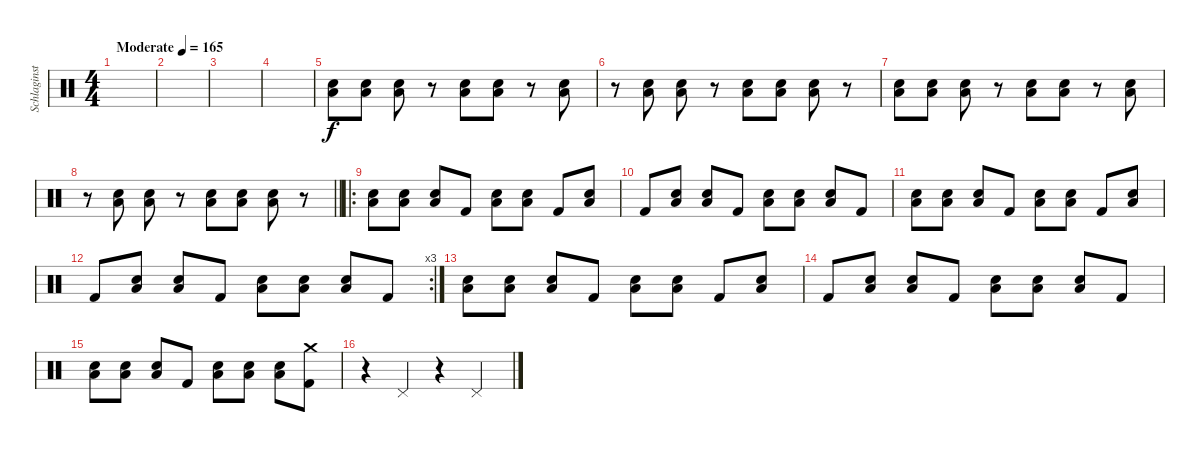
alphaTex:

\track ("Schlaginstrumente - Auswahl" "Schlaginst") {instrument percussion}
\staff {score}
\articulation defaults
\ts (4 4)
\tempo (165 "Moderate")
\clef neutral
\ks c
|
|
|
|
("Low Floor Tom (hit)" "Snare (hit) 2").8 ("Low Floor Tom (hit)" "Snare (hit) 2").8 ("Low Floor Tom (hit)" "Snare (hit) 2").8 r.8 ("Low Floor Tom (hit)" "Snare (hit) 2").8 ("Low Floor Tom (hit)" "Snare (hit) 2").8 r.8 ("Low Floor Tom (hit)" "Snare (hit) 2").8 |
r.8 ("Low Floor Tom (hit)" "Snare (hit) 2").8 ("Low Floor Tom (hit)" "Snare (hit) 2").8 r.8 ("Low Floor Tom (hit)" "Snare (hit) 2").8 ("Low Floor Tom (hit)" "Snare (hit) 2").8 ("Low Floor Tom (hit)" "Snare (hit) 2").8 r.8 |
("Low Floor Tom (hit)" "Snare (hit) 2").8 ("Low Floor Tom (hit)" "Snare (hit) 2").8 ("Low Floor Tom (hit)" "Snare (hit) 2").8 r.8 ("Low Floor Tom (hit)" "Snare (hit) 2").8 ("Low Floor Tom (hit)" "Snare (hit) 2").8 r.8 ("Low Floor Tom (hit)" "Snare (hit) 2").8 |
\barLineRight lightlight
r.8 ("Low Floor Tom (hit)" "Snare (hit) 2").8 ("Low Floor Tom (hit)" "Snare (hit) 2").8 r.8 ("Low Floor Tom (hit)" "Snare (hit) 2").8 ("Low Floor Tom (hit)" "Snare (hit) 2").8 ("Low Floor Tom (hit)" "Snare (hit) 2").8 r.8 |
\ro
("Low Floor Tom (hit)" "Snare (hit) 2").8 ("Low Floor Tom (hit)" "Snare (hit) 2").8 ("Low Floor Tom (hit)" "Snare (hit) 2").8 "Kick (hit) 2".8 ("Low Floor Tom (hit)" "Snare (hit) 2").8 ("Low Floor Tom (hit)" "Snare (hit) 2").8 "Kick (hit) 2".8 ("Low Floor Tom (hit)" "Snare (hit) 2").8 |
"Kick (hit) 2".8 ("Low Floor Tom (hit)" "Snare (hit) 2").8 ("Low Floor Tom (hit)" "Snare (hit) 2").8 "Kick (hit) 2".8 ("Low Floor Tom (hit)" "Snare (hit) 2").8 ("Low Floor Tom (hit)" "Snare (hit) 2").8 ("Low Floor Tom (hit)" "Snare (hit) 2").8 "Kick (hit) 2".8 |
("Low Floor Tom (hit)" "Snare (hit) 2").8 ("Low Floor Tom (hit)" "Snare (hit) 2").8 ("Low Floor Tom (hit)" "Snare (hit) 2").8 "Kick (hit) 2".8 ("Low Floor Tom (hit)" "Snare (hit) 2").8 ("Low Floor Tom (hit)" "Snare (hit) 2").8 "Kick (hit) 2".8 ("Low Floor Tom (hit)" "Snare (hit) 2").8 |
\rc 3 "Kick (hit) 2".8
("Low Floor Tom (hit)" "Snare (hit) 2").8 ("Low Floor Tom (hit)" "Snare (hit) 2").8 "Kick (hit) 2".8 ("Low Floor Tom (hit)" "Snare (hit) 2").8 ("Low Floor Tom (hit)" "Snare (hit) 2").8 ("Low Floor Tom (hit)" "Snare (hit) 2").8 "Kick (hit) 2".8 |
("Low Floor Tom (hit)" "Snare (hit) 2").8 ("Low Floor Tom (hit)" "Snare (hit) 2").8 ("Low Floor Tom (hit)" "Snare (hit) 2").8 "Kick (hit) 2".8 ("Low Floor Tom (hit)" "Snare (hit) 2").8 ("Low Floor Tom (hit)" "Snare (hit) 2").8 "Kick (hit) 2".8 ("Low Floor Tom (hit)" "Snare (hit) 2").8 |
"Kick (hit) 2".8 ("Low Floor Tom (hit)" "Snare (hit) 2").8 ("Low Floor Tom (hit)" "Snare (hit) 2").8 "Kick (hit) 2".8 ("Low Floor Tom (hit)" "Snare (hit) 2").8 ("Low Floor Tom (hit)" "Snare (hit) 2").8 ("Low Floor Tom (hit)" "Snare (hit) 2").8 "Kick (hit) 2".8 |
("Low Floor Tom (hit)" "Snare (hit) 2").8 ("Low Floor Tom (hit)" "Snare (hit) 2").8 ("Low Floor Tom (hit)" "Snare (hit) 2").8 "Kick (hit) 2".8 ("Low Floor Tom (hit)" "Snare (hit) 2").8 ("Low Floor Tom (hit)" "Snare (hit) 2").8 ("Low Floor Tom (hit)" "Snare (hit) 2").8 ("Crash medium (hit)" "Kick (hit) 2").8 |
r.4 "Pedal Hi-Hat (hit)".4 r.4 "Pedal Hi-Hat (hit)".4
